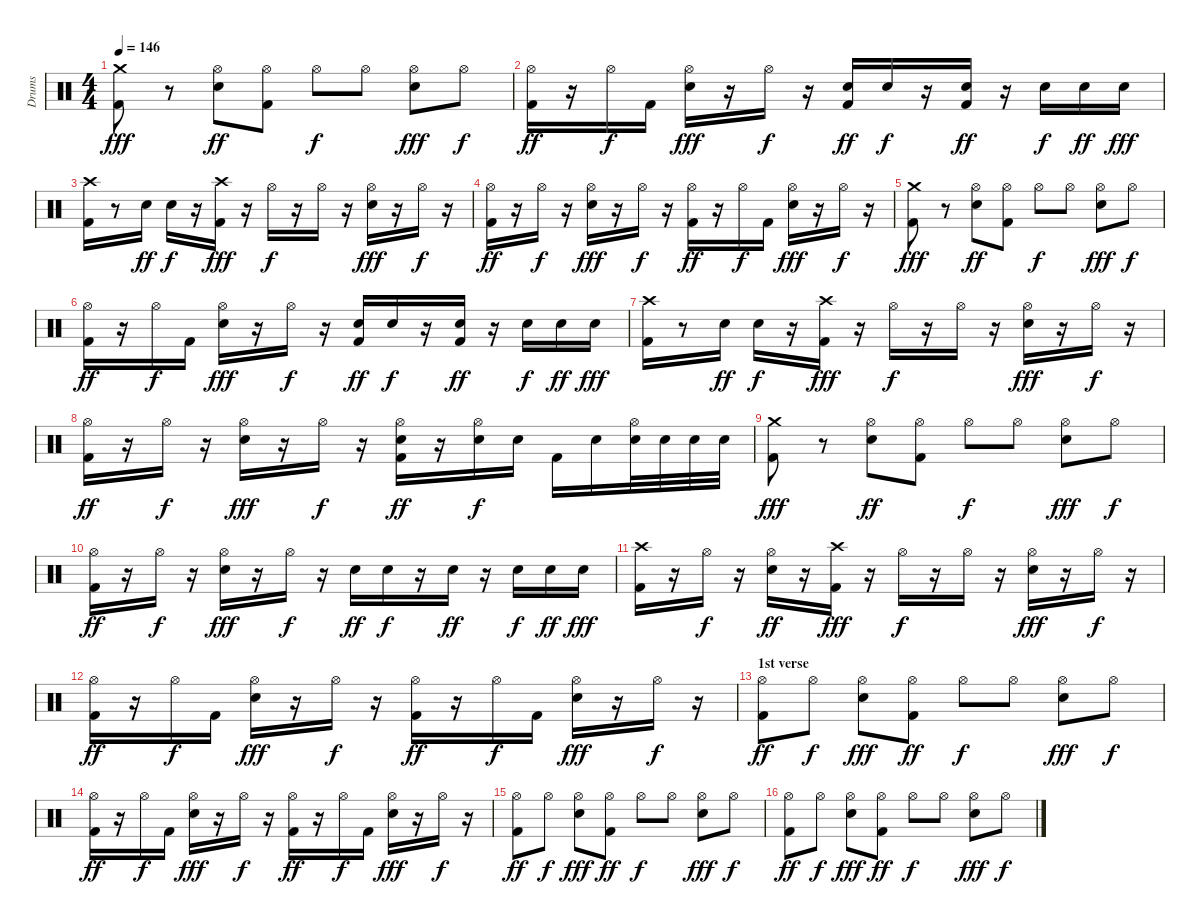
\track ("Drums" "Drums") {instrument percussion}
\staff {score}
\articulation defaults
\ts (4 4)
\tempo 146
\clef neutral
\ks c
("Kick (hit) 2" "Crash medium (hit)").8{dy fff} r.8 ("Hi-Hat (open)" "Snare (hit) 2").8{dy ff} ("Hi-Hat (open)" "Kick (hit) 2").8 "Hi-Hat (open)".8{dy f} "Hi-Hat (open)".8 ("Snare (hit) 2" "Hi-Hat (open)").8{dy fff} "Hi-Hat (open)".8{dy f} |
("Kick (hit) 2" "Hi-Hat (open)").16{dy ff} r.16 "Hi-Hat (open)".16{dy f} "Kick (hit) 2".16 ("Snare (hit) 2" "Hi-Hat (open)").16{dy fff} r.16 "Hi-Hat (open)".16{dy f} r.16 ("Snare (hit) 2" "Kick (hit) 2").16{dy ff} "Snare (hit) 2".16{dy f} r.16 ("Snare (hit) 2" "Kick (hit) 2").16{dy ff} r.16 "Snare (hit) 2".16{dy f} "Snare (hit) 2".16{dy ff} "Snare (hit) 2".16{dy fff} |
("Kick (hit) 2" "Crash high (hit)").16 r.8 "Snare (hit) 2".16{dy ff} "Snare (hit) 2".16{dy f} r.16 ("Kick (hit) 2" "Crash high (hit)").16{dy fff} r.16 "Hi-Hat (open)".16{dy f} r.16 "Hi-Hat (open)".16 r.16 ("Snare (hit) 2" "Hi-Hat (open)").16{dy fff} r.16 "Hi-Hat (open)".16{dy f} r.16 |
("Kick (hit) 2" "Hi-Hat (open)").16{dy ff} r.16 "Hi-Hat (open)".16{dy f} r.16 ("Snare (hit) 2" "Hi-Hat (open)").16{dy fff} r.16 "Hi-Hat (open)".16{dy f} r.16 ("Kick (hit) 2" "Hi-Hat (open)").16{dy ff} r.16 "Hi-Hat (open)".16{dy f} "Kick (hit) 2".16 ("Snare (hit) 2" "Hi-Hat (open)").16{dy fff} r.16 "Hi-Hat (open)".16{dy f} r.16 |
("Kick (hit) 2" "Crash medium (hit)").8{dy fff} r.8 ("Hi-Hat (open)" "Snare (hit) 2").8{dy ff} ("Hi-Hat (open)" "Kick (hit) 2").8 "Hi-Hat (open)".8{dy f} "Hi-Hat (open)".8 ("Snare (hit) 2" "Hi-Hat (open)").8{dy fff} "Hi-Hat (open)".8{dy f} |
("Kick (hit) 2" "Hi-Hat (open)").16{dy ff} r.16 "Hi-Hat (open)".16{dy f} "Kick (hit) 2".16 ("Snare (hit) 2" "Hi-Hat (open)").16{dy fff} r.16 "Hi-Hat (open)".16{dy f} r.16 ("Snare (hit) 2" "Kick (hit) 2").16{dy ff} "Snare (hit) 2".16{dy f} r.16 ("Snare (hit) 2" "Kick (hit) 2").16{dy ff} r.16 "Snare (hit) 2".16{dy f} "Snare (hit) 2".16{dy ff} "Snare (hit) 2".16{dy fff} |
("Kick (hit) 2" "Crash high (hit)").16 r.8 "Snare (hit) 2".16{dy ff} "Snare (hit) 2".16{dy f} r.16 ("Kick (hit) 2" "Crash high (hit)").16{dy fff} r.16 "Hi-Hat (open)".16{dy f} r.16 "Hi-Hat (open)".16 r.16 ("Snare (hit) 2" "Hi-Hat (open)").16{dy fff} r.16 "Hi-Hat (open)".16{dy f} r.16 |
("Kick (hit) 2" "Hi-Hat (open)").16{dy ff} r.16 "Hi-Hat (open)".16{dy f} r.16 ("Snare (hit) 2" "Hi-Hat (open)").16{dy fff} r.16 "Hi-Hat (open)".16{dy f} r.16 ("Kick (hit) 2" "Hi-Hat (open)" "Snare (hit) 2").16{dy ff} r.16 ("Hi-Hat (open)" "Electric Snare (hit)").16{dy f} "Electric Snare (hit)".16 "Kick (hit) 2".16 "Electric Snare (hit)".16 ("Hi-Hat (open)" "Electric Snare (hit)").32 "Electric Snare (hit)".32 "Electric Snare (hit)".32 "Electric Snare (hit)".32 |
("Kick (hit) 2" "Crash medium (hit)").8{dy fff} r.8 ("Hi-Hat (open)" "Snare (hit) 2").8{dy ff} ("Hi-Hat (open)" "Kick (hit) 2").8 "Hi-Hat (open)".8{dy f} "Hi-Hat (open)".8 ("Snare (hit) 2" "Hi-Hat (open)").8{dy fff} "Hi-Hat (open)".8{dy f} |
("Kick (hit) 2" "Hi-Hat (open)").16{dy ff} r.16 "Hi-Hat (open)".16{dy f} r.16 ("Snare (hit) 2" "Hi-Hat (open)").16{dy fff} r.16 "Hi-Hat (open)".16{dy f} r.16 "Snare (hit) 2".16{dy ff} "Snare (hit) 2".16{dy f} r.16 "Snare (hit) 2".16{dy ff} r.16 "Snare (hit) 2".16{dy f} "Snare (hit) 2".16{dy ff} "Snare (hit) 2".16{dy fff} |
("Kick (hit) 2" "Crash high (hit)").16 r.16 "Hi-Hat (open)".16{dy f} r.16 ("Hi-Hat (open)" "Snare (hit) 2").16{dy ff} r.16 ("Kick (hit) 2" "Crash high (hit)").16{dy fff} r.16 "Hi-Hat (open)".16{dy f} r.16 "Hi-Hat (open)".16 r.16 ("Snare (hit) 2" "Hi-Hat (open)").16{dy fff} r.16 "Hi-Hat (open)".16{dy f} r.16 |
("Kick (hit) 2" "Hi-Hat (open)").16{dy ff} r.16 "Hi-Hat (open)".16{dy f} "Kick (hit) 2".16 ("Snare (hit) 2" "Hi-Hat (open)").16{dy fff} r.16 "Hi-Hat (open)".16{dy f} r.16 ("Kick (hit) 2" "Hi-Hat (open)").16{dy ff} r.16 "Hi-Hat (open)".16{dy f} "Kick (hit) 2".16 ("Snare (hit) 2" "Hi-Hat (open)").16{dy fff} r.16 "Hi-Hat (open)".16{dy f} r.16 |
\section ("" "1st verse")
("Kick (hit) 2" "Hi-Hat (open)").8{dy ff} "Hi-Hat (open)".8{dy f} ("Snare (hit) 2" "Hi-Hat (open)").8{dy fff} ("Kick (hit) 2" "Hi-Hat (open)").8{dy ff} "Hi-Hat (open)".8{dy f} "Hi-Hat (open)".8 ("Snare (hit) 2" "Hi-Hat (open)").8{dy fff} "Hi-Hat (open)".8{dy f} |
("Kick (hit) 2" "Hi-Hat (open)").16{dy ff} r.16 "Hi-Hat (open)".16{dy f} "Kick (hit) 2".16 ("Snare (hit) 2" "Hi-Hat (open)").16{dy fff} r.16 "Hi-Hat (open)".16{dy f} r.16 ("Kick (hit) 2" "Hi-Hat (open)").16{dy ff} r.16 "Hi-Hat (open)".16{dy f} "Kick (hit) 2".16 ("Snare (hit) 2" "Hi-Hat (open)").16{dy fff} r.16 "Hi-Hat (open)".16{dy f} r.16 |
("Kick (hit) 2" "Hi-Hat (open)").8{dy ff} "Hi-Hat (open)".8{dy f} ("Snare (hit) 2" "Hi-Hat (open)").8{dy fff} ("Kick (hit) 2" "Hi-Hat (open)").8{dy ff} "Hi-Hat (open)".8{dy f} "Hi-Hat (open)".8 ("Snare (hit) 2" "Hi-Hat (open)").8{dy fff} "Hi-Hat (open)".8{dy f} |
("Kick (hit) 2" "Hi-Hat (open)").8{dy ff} "Hi-Hat (open)".8{dy f} ("Snare (hit) 2" "Hi-Hat (open)").8{dy fff} ("Kick (hit) 2" "Hi-Hat (open)").8{dy ff} "Hi-Hat (open)".8{dy f} "Hi-Hat (open)".8 ("Snare (hit) 2" "Hi-Hat (open)").8{dy fff} "Hi-Hat (open)".8{dy f}
